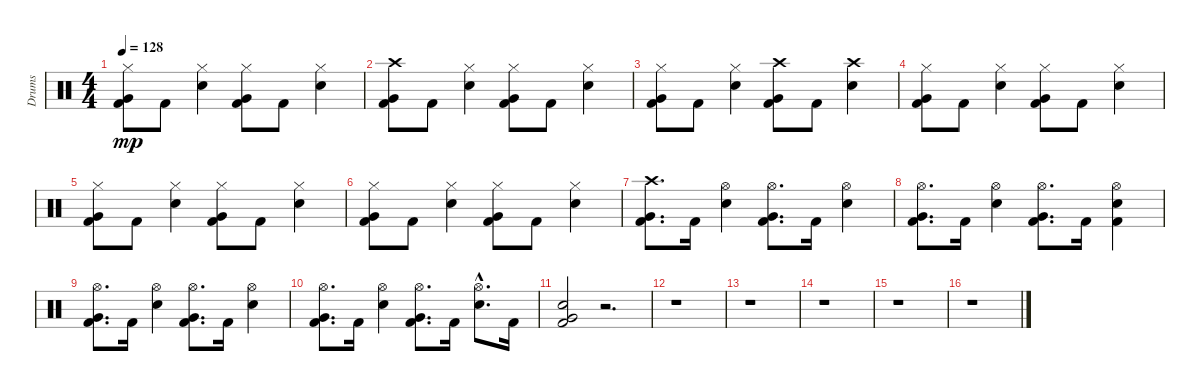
\track ("Drums" "Drums") {instrument percussion}
\staff {score}
\articulation defaults
\ts (4 4)
\tempo 128
\clef neutral
\ks c
("Kick (hit) 2" "Very Low Tom (hit)" "Hi-Hat (closed)").8{dy mp} "Kick (hit) 2".8 ("Electric Snare (hit)" "Hi-Hat (closed)").4 ("Kick (hit) 2" "Very Low Tom (hit)" "Hi-Hat (closed)").8 "Kick (hit) 2".8 ("Electric Snare (hit)" "Hi-Hat (closed)").4 |
("Kick (hit) 2" "Very Low Tom (hit)" "Crash high (hit)").8 "Kick (hit) 2".8 ("Electric Snare (hit)" "Hi-Hat (closed)").4 ("Kick (hit) 2" "Very Low Tom (hit)" "Hi-Hat (closed)").8 "Kick (hit) 2".8 ("Electric Snare (hit)" "Hi-Hat (closed)").4 |
("Kick (hit) 2" "Very Low Tom (hit)" "Hi-Hat (closed)").8 "Kick (hit) 2".8 ("Electric Snare (hit)" "Hi-Hat (closed)").4 ("Kick (hit) 2" "Very Low Tom (hit)" "Crash high (hit)").8 "Kick (hit) 2".8 ("Electric Snare (hit)" "Crash high (hit)").4 |
("Kick (hit) 2" "Very Low Tom (hit)" "Hi-Hat (closed)").8 "Kick (hit) 2".8 ("Electric Snare (hit)" "Hi-Hat (closed)").4 ("Kick (hit) 2" "Very Low Tom (hit)" "Hi-Hat (closed)").8 "Kick (hit) 2".8 ("Electric Snare (hit)" "Hi-Hat (closed)").4 |
("Kick (hit) 2" "Very Low Tom (hit)" "Hi-Hat (closed)").8 "Kick (hit) 2".8 ("Electric Snare (hit)" "Hi-Hat (closed)").4 ("Kick (hit) 2" "Very Low Tom (hit)" "Hi-Hat (closed)").8 "Kick (hit) 2".8 ("Electric Snare (hit)" "Hi-Hat (closed)").4 |
("Kick (hit) 2" "Very Low Tom (hit)" "Hi-Hat (closed)").8 "Kick (hit) 2".8 ("Electric Snare (hit)" "Hi-Hat (closed)").4 ("Kick (hit) 2" "Very Low Tom (hit)" "Hi-Hat (closed)").8 "Kick (hit) 2".8 ("Electric Snare (hit)" "Hi-Hat (closed)").4 |
("Kick (hit) 2" "Very Low Tom (hit)" "Crash high (hit)").8{d} "Kick (hit) 2".16 ("Electric Snare (hit)" "Hi-Hat (open)").4 ("Kick (hit) 2" "Very Low Tom (hit)" "Hi-Hat (open)").8{d} "Kick (hit) 2".16 ("Electric Snare (hit)" "Hi-Hat (open)").4 |
("Kick (hit) 2" "Very Low Tom (hit)" "Hi-Hat (open)").8{d} "Kick (hit) 2".16 ("Electric Snare (hit)" "Hi-Hat (open)").4 ("Kick (hit) 2" "Very Low Tom (hit)" "Hi-Hat (open)").8{d} "Kick (hit) 2".16 ("Kick (hit) 2" "Electric Snare (hit)" "Hi-Hat (open)").4 |
("Kick (hit) 2" "Very Low Tom (hit)" "Hi-Hat (open)").8{d} "Kick (hit) 2".16 ("Electric Snare (hit)" "Hi-Hat (open)").4 ("Kick (hit) 2" "Very Low Tom (hit)" "Hi-Hat (open)").8{d} "Kick (hit) 2".16 ("Electric Snare (hit)" "Hi-Hat (open)").4 |
("Kick (hit) 2" "Very Low Tom (hit)" "Hi-Hat (open)").8{d} "Kick (hit) 2".16 ("Electric Snare (hit)" "Hi-Hat (open)").4 ("Kick (hit) 2" "Very Low Tom (hit)" "Hi-Hat (open)").8{d} "Kick (hit) 2".16 ("Electric Snare (hit)"{hac} "Hi-Hat (open)"{hac}).8{d} "Kick (hit) 2".16 |
("Kick (hit) 2" "Electric Snare (hit)" "Very Low Tom (hit)").2 r.2{d} |
r.1 |
r.1 |
r.1 |
r.1 |
r.1
